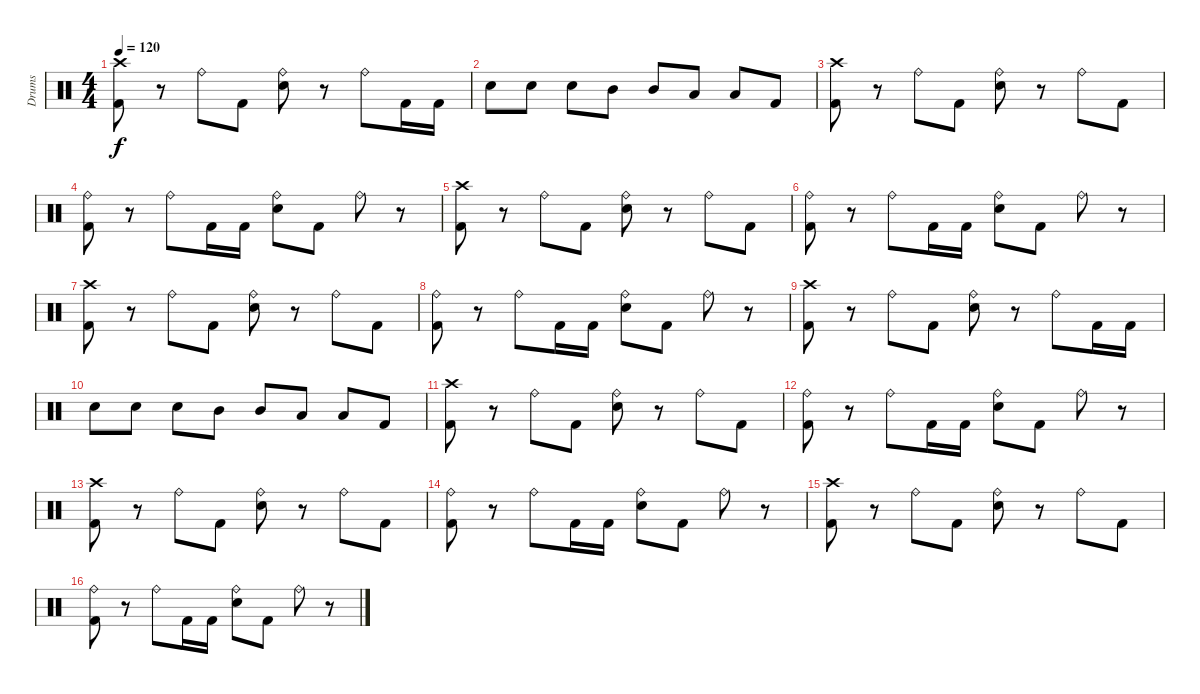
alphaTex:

\track ("Drums" "Drums") {instrument percussion}
\staff {score}
\articulation defaults
\ts (4 4)
\tempo 120
\clef neutral
\ks c
("Crash high (hit)" "Kick (hit) 2").8{dy f} r.8 "Ride (bell)".8 "Kick (hit) 2".8 ("Ride (bell)" "Electric Snare (hit)").8 r.8 "Ride (bell)".8 "Kick (hit) 2".16 "Kick (hit) 2".16 |
"Electric Snare (hit)".8 "Electric Snare (hit)".8 "Electric Snare (hit)".8 "Mid Tom (hit)".8 "Mid Tom (hit)".8 "Low Tom (hit)".8 "Low Tom (hit)".8 "Kick (hit) 2".8 |
("Crash high (hit)" "Kick (hit) 2").8 r.8 "Ride (bell)".8 "Kick (hit) 2".8 ("Ride (bell)" "Electric Snare (hit)").8 r.8 "Ride (bell)".8 "Kick (hit) 2".8 |
("Ride (bell)" "Kick (hit) 2").8 r.8 "Ride (bell)".8 "Kick (hit) 2".16 "Kick (hit) 2".16 ("Ride (bell)" "Electric Snare (hit)").8 "Kick (hit) 2".8 "Ride (bell)".8 r.8 |
("Crash high (hit)" "Kick (hit) 2").8 r.8 "Ride (bell)".8 "Kick (hit) 2".8 ("Ride (bell)" "Electric Snare (hit)").8 r.8 "Ride (bell)".8 "Kick (hit) 2".8 |
("Ride (bell)" "Kick (hit) 2").8 r.8 "Ride (bell)".8 "Kick (hit) 2".16 "Kick (hit) 2".16 ("Ride (bell)" "Electric Snare (hit)").8 "Kick (hit) 2".8 "Ride (bell)".8 r.8 |
("Crash high (hit)" "Kick (hit) 2").8 r.8 "Ride (bell)".8 "Kick (hit) 2".8 ("Ride (bell)" "Electric Snare (hit)").8 r.8 "Ride (bell)".8 "Kick (hit) 2".8 |
("Ride (bell)" "Kick (hit) 2").8 r.8 "Ride (bell)".8 "Kick (hit) 2".16 "Kick (hit) 2".16 ("Ride (bell)" "Electric Snare (hit)").8 "Kick (hit) 2".8 "Ride (bell)".8 r.8 |
("Crash high (hit)" "Kick (hit) 2").8 r.8 "Ride (bell)".8 "Kick (hit) 2".8 ("Ride (bell)" "Electric Snare (hit)").8 r.8 "Ride (bell)".8 "Kick (hit) 2".16 "Kick (hit) 2".16 |
"Electric Snare (hit)".8 "Electric Snare (hit)".8 "Electric Snare (hit)".8 "Mid Tom (hit)".8 "Mid Tom (hit)".8 "Low Tom (hit)".8 "Low Tom (hit)".8 "Kick (hit) 2".8 |
("Crash high (hit)" "Kick (hit) 2").8 r.8 "Ride (bell)".8 "Kick (hit) 2".8 ("Ride (bell)" "Electric Snare (hit)").8 r.8 "Ride (bell)".8 "Kick (hit) 2".8 |
("Ride (bell)" "Kick (hit) 2").8 r.8 "Ride (bell)".8 "Kick (hit) 2".16 "Kick (hit) 2".16 ("Ride (bell)" "Electric Snare (hit)").8 "Kick (hit) 2".8 "Ride (bell)".8 r.8 |
("Crash high (hit)" "Kick (hit) 2").8 r.8 "Ride (bell)".8 "Kick (hit) 2".8 ("Ride (bell)" "Electric Snare (hit)").8 r.8 "Ride (bell)".8 "Kick (hit) 2".8 |
("Ride (bell)" "Kick (hit) 2").8 r.8 "Ride (bell)".8 "Kick (hit) 2".16 "Kick (hit) 2".16 ("Ride (bell)" "Electric Snare (hit)").8 "Kick (hit) 2".8 "Ride (bell)".8 r.8 |
("Crash high (hit)" "Kick (hit) 2").8 r.8 "Ride (bell)".8 "Kick (hit) 2".8 ("Ride (bell)" "Electric Snare (hit)").8 r.8 "Ride (bell)".8 "Kick (hit) 2".8 |
("Ride (bell)" "Kick (hit) 2").8 r.8 "Ride (bell)".8 "Kick (hit) 2".16 "Kick (hit) 2".16 ("Ride (bell)" "Electric Snare (hit)").8 "Kick (hit) 2".8 "Ride (bell)".8 r.8
